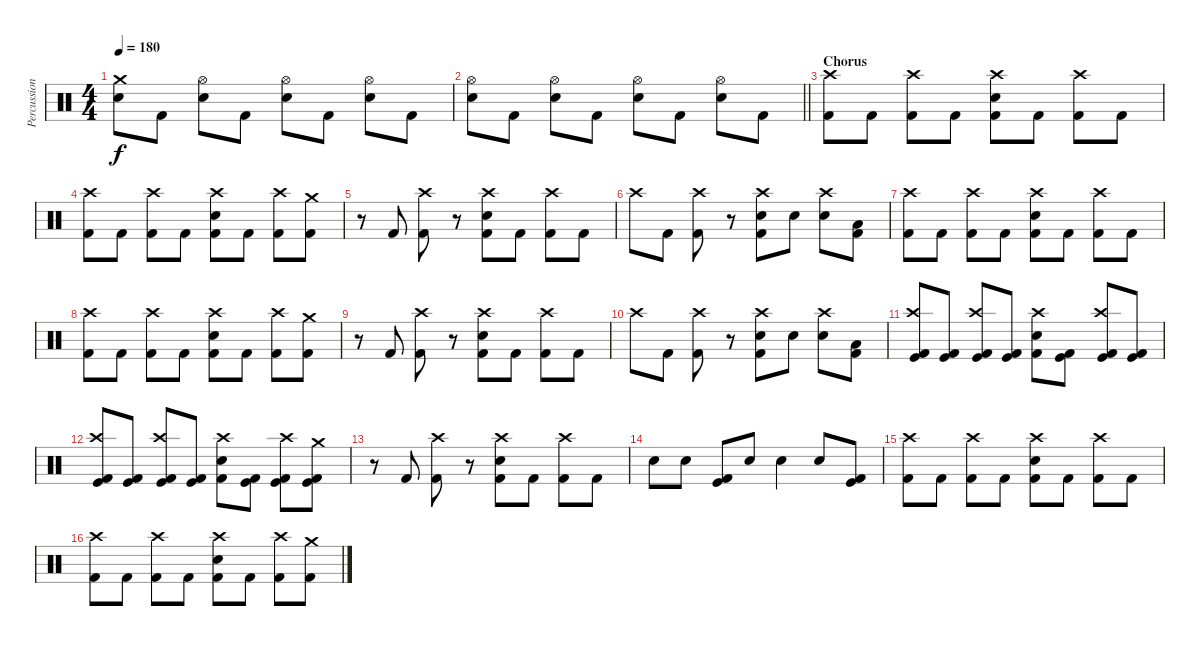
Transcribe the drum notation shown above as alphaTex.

\track ("Percussion" "Percussion") {instrument percussion}
\staff {score}
\articulation defaults
\ts (4 4)
\tempo 180
\clef neutral
\ks c
("Crash medium (hit)" "Electric Snare (hit)").8{dy f} "Kick (hit) 2".8 ("Hi-Hat (open)" "Electric Snare (hit)").8 "Kick (hit) 2".8 ("Hi-Hat (open)" "Electric Snare (hit)").8 "Kick (hit) 2".8 ("Hi-Hat (open)" "Electric Snare (hit)").8 "Kick (hit) 2".8 |
\barLineRight lightlight
("Hi-Hat (open)" "Electric Snare (hit)").8 "Kick (hit) 2".8 ("Hi-Hat (open)" "Electric Snare (hit)").8 "Kick (hit) 2".8 ("Hi-Hat (open)" "Electric Snare (hit)").8 "Kick (hit) 2".8 ("Hi-Hat (open)" "Electric Snare (hit)").8 "Kick (hit) 2".8 |
\section ("" "Chorus")
("Crash high (hit)" "Kick (hit) 2").8{volume 16} "Kick (hit) 2".8 ("Crash high (hit)" "Kick (hit) 2").8 "Kick (hit) 2".8 ("Crash high (hit)" "Electric Snare (hit)" "Kick (hit) 2").8 "Kick (hit) 2".8 ("Crash high (hit)" "Kick (hit) 2").8 "Kick (hit) 2".8 |
("Crash high (hit)" "Kick (hit) 2").8{volume 16} "Kick (hit) 2".8 ("Crash high (hit)" "Kick (hit) 2").8 "Kick (hit) 2".8 ("Crash high (hit)" "Electric Snare (hit)" "Kick (hit) 2").8 "Kick (hit) 2".8 ("Crash high (hit)" "Kick (hit) 2").8 ("Crash medium (hit)" "Kick (hit) 2").8 |
r.8 "Kick (hit) 2".8 ("Crash high (hit)" "Kick (hit) 2").8 r.8 ("Crash high (hit)" "Electric Snare (hit)" "Kick (hit) 2").8 "Kick (hit) 2".8 ("Crash high (hit)" "Kick (hit) 2").8 "Kick (hit) 2".8 |
"Crash high (hit)".8 "Kick (hit) 2".8 ("Crash high (hit)" "Kick (hit) 2").8 r.8 ("Crash high (hit)" "Electric Snare (hit)" "Kick (hit) 2").8 "Electric Snare (hit)".8 ("Crash high (hit)" "Electric Snare (hit)").8 ("Low Tom (hit)" "Kick (hit) 2").8 |
("Crash high (hit)" "Kick (hit) 2").8{volume 16} "Kick (hit) 2".8 ("Crash high (hit)" "Kick (hit) 2").8 "Kick (hit) 2".8 ("Crash high (hit)" "Electric Snare (hit)" "Kick (hit) 2").8 "Kick (hit) 2".8 ("Crash high (hit)" "Kick (hit) 2").8 "Kick (hit) 2".8 |
("Crash high (hit)" "Kick (hit) 2").8{volume 16} "Kick (hit) 2".8 ("Crash high (hit)" "Kick (hit) 2").8 "Kick (hit) 2".8 ("Crash high (hit)" "Electric Snare (hit)" "Kick (hit) 2").8 "Kick (hit) 2".8 ("Crash high (hit)" "Kick (hit) 2").8 ("Crash medium (hit)" "Kick (hit) 2").8 |
r.8 "Kick (hit) 2".8 ("Crash high (hit)" "Kick (hit) 2").8 r.8 ("Crash high (hit)" "Electric Snare (hit)" "Kick (hit) 2").8 "Kick (hit) 2".8 ("Crash high (hit)" "Kick (hit) 2").8 "Kick (hit) 2".8 |
"Crash high (hit)".8 "Kick (hit) 2".8 ("Crash high (hit)" "Kick (hit) 2").8 r.8 ("Crash high (hit)" "Electric Snare (hit)" "Kick (hit) 2").8 "Electric Snare (hit)".8 ("Crash high (hit)" "Electric Snare (hit)").8 ("Low Tom (hit)" "Kick (hit) 2").8 |
("Crash high (hit)" "Kick (hit)" "Kick (hit) 2").8{volume 16} ("Kick (hit)" "Kick (hit) 2").8 ("Crash high (hit)" "Kick (hit)" "Kick (hit) 2").8 ("Kick (hit)" "Kick (hit) 2").8 ("Crash high (hit)" "Electric Snare (hit)" "Kick (hit) 2").8 ("Kick (hit)" "Kick (hit) 2").8 ("Crash high (hit)" "Kick (hit)" "Kick (hit) 2").8 ("Kick (hit)" "Kick (hit) 2").8 |
("Crash high (hit)" "Kick (hit)" "Kick (hit) 2").8{volume 16} ("Kick (hit)" "Kick (hit) 2").8 ("Crash high (hit)" "Kick (hit)" "Kick (hit) 2").8 ("Kick (hit)" "Kick (hit) 2").8 ("Crash high (hit)" "Electric Snare (hit)" "Kick (hit) 2").8 ("Kick (hit)" "Kick (hit) 2").8 ("Crash high (hit)" "Kick (hit)" "Kick (hit) 2").8 ("Crash medium (hit)" "Kick (hit)" "Kick (hit) 2").8 |
r.8 "Kick (hit) 2".8 ("Crash high (hit)" "Kick (hit) 2").8 r.8 ("Crash high (hit)" "Electric Snare (hit)" "Kick (hit) 2").8 "Kick (hit) 2".8 ("Crash high (hit)" "Kick (hit) 2").8 "Kick (hit) 2".8 |
"Electric Snare (hit)".8 "Electric Snare (hit)".8 ("Kick (hit)" "Kick (hit) 2").8 "Electric Snare (hit)".8 "Electric Snare (hit)".4 "Electric Snare (hit)".8 ("Kick (hit)" "Kick (hit) 2").8 |
("Crash high (hit)" "Kick (hit) 2").8{volume 16} "Kick (hit) 2".8 ("Crash high (hit)" "Kick (hit) 2").8 "Kick (hit) 2".8 ("Crash high (hit)" "Electric Snare (hit)" "Kick (hit) 2").8 "Kick (hit) 2".8 ("Crash high (hit)" "Kick (hit) 2").8 "Kick (hit) 2".8 |
("Crash high (hit)" "Kick (hit) 2").8{volume 16} "Kick (hit) 2".8 ("Crash high (hit)" "Kick (hit) 2").8 "Kick (hit) 2".8 ("Crash high (hit)" "Electric Snare (hit)" "Kick (hit) 2").8 "Kick (hit) 2".8 ("Crash high (hit)" "Kick (hit) 2").8 ("Crash medium (hit)" "Kick (hit) 2").8
